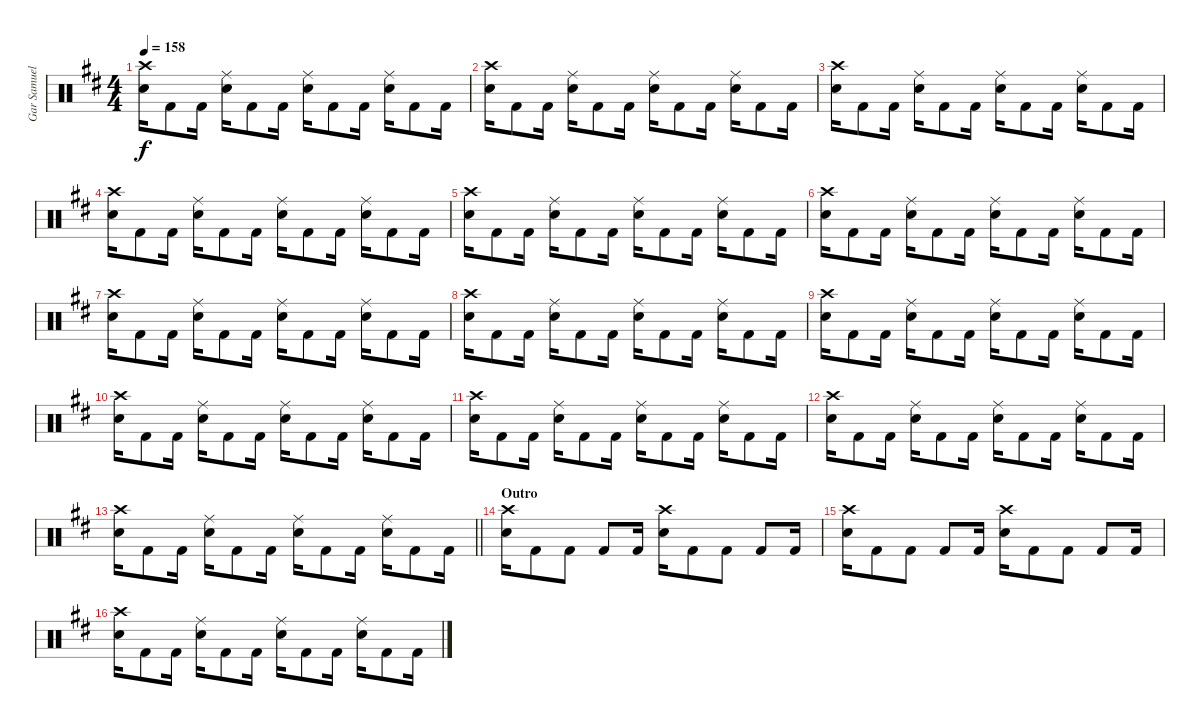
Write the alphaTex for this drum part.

\track ("Gar Samuelson" "Gar Samuel") {instrument percussion}
\staff {score}
\articulation defaults
\ts (4 4)
\tempo 158
\clef neutral
\ks d
("Crash high (hit)" "Snare (hit) 2").16{dy f} "Kick (hit) 2".8 "Kick (hit) 2".16 ("Ride (middle)" "Snare (hit) 2").16 "Kick (hit) 2".8 "Kick (hit) 2".16 ("Ride (middle)" "Snare (hit) 2").16 "Kick (hit) 2".8 "Kick (hit) 2".16 ("Ride (middle)" "Snare (hit) 2").16 "Kick (hit) 2".8 "Kick (hit) 2".16 |
("Crash high (hit)" "Snare (hit) 2").16 "Kick (hit) 2".8 "Kick (hit) 2".16 ("Ride (middle)" "Snare (hit) 2").16 "Kick (hit) 2".8 "Kick (hit) 2".16 ("Ride (middle)" "Snare (hit) 2").16 "Kick (hit) 2".8 "Kick (hit) 2".16 ("Ride (middle)" "Snare (hit) 2").16 "Kick (hit) 2".8 "Kick (hit) 2".16 |
("Crash high (hit)" "Snare (hit) 2").16 "Kick (hit) 2".8 "Kick (hit) 2".16 ("Ride (middle)" "Snare (hit) 2").16 "Kick (hit) 2".8 "Kick (hit) 2".16 ("Ride (middle)" "Snare (hit) 2").16 "Kick (hit) 2".8 "Kick (hit) 2".16 ("Ride (middle)" "Snare (hit) 2").16 "Kick (hit) 2".8 "Kick (hit) 2".16 |
("Crash high (hit)" "Snare (hit) 2").16 "Kick (hit) 2".8 "Kick (hit) 2".16 ("Ride (middle)" "Snare (hit) 2").16 "Kick (hit) 2".8 "Kick (hit) 2".16 ("Ride (middle)" "Snare (hit) 2").16 "Kick (hit) 2".8 "Kick (hit) 2".16 ("Ride (middle)" "Snare (hit) 2").16 "Kick (hit) 2".8 "Kick (hit) 2".16 |
("Crash high (hit)" "Snare (hit) 2").16 "Kick (hit) 2".8 "Kick (hit) 2".16 ("Ride (middle)" "Snare (hit) 2").16 "Kick (hit) 2".8 "Kick (hit) 2".16 ("Ride (middle)" "Snare (hit) 2").16 "Kick (hit) 2".8 "Kick (hit) 2".16 ("Ride (middle)" "Snare (hit) 2").16 "Kick (hit) 2".8 "Kick (hit) 2".16 |
("Crash high (hit)" "Snare (hit) 2").16 "Kick (hit) 2".8 "Kick (hit) 2".16 ("Ride (middle)" "Snare (hit) 2").16 "Kick (hit) 2".8 "Kick (hit) 2".16 ("Ride (middle)" "Snare (hit) 2").16 "Kick (hit) 2".8 "Kick (hit) 2".16 ("Ride (middle)" "Snare (hit) 2").16 "Kick (hit) 2".8 "Kick (hit) 2".16 |
("Crash high (hit)" "Snare (hit) 2").16 "Kick (hit) 2".8 "Kick (hit) 2".16 ("Ride (middle)" "Snare (hit) 2").16 "Kick (hit) 2".8 "Kick (hit) 2".16 ("Ride (middle)" "Snare (hit) 2").16 "Kick (hit) 2".8 "Kick (hit) 2".16 ("Ride (middle)" "Snare (hit) 2").16 "Kick (hit) 2".8 "Kick (hit) 2".16 |
("Crash high (hit)" "Snare (hit) 2").16 "Kick (hit) 2".8 "Kick (hit) 2".16 ("Ride (middle)" "Snare (hit) 2").16 "Kick (hit) 2".8 "Kick (hit) 2".16 ("Ride (middle)" "Snare (hit) 2").16 "Kick (hit) 2".8 "Kick (hit) 2".16 ("Ride (middle)" "Snare (hit) 2").16 "Kick (hit) 2".8 "Kick (hit) 2".16 |
("Crash high (hit)" "Snare (hit) 2").16 "Kick (hit) 2".8 "Kick (hit) 2".16 ("Ride (middle)" "Snare (hit) 2").16 "Kick (hit) 2".8 "Kick (hit) 2".16 ("Ride (middle)" "Snare (hit) 2").16 "Kick (hit) 2".8 "Kick (hit) 2".16 ("Ride (middle)" "Snare (hit) 2").16 "Kick (hit) 2".8 "Kick (hit) 2".16 |
("Crash high (hit)" "Snare (hit) 2").16 "Kick (hit) 2".8 "Kick (hit) 2".16 ("Ride (middle)" "Snare (hit) 2").16 "Kick (hit) 2".8 "Kick (hit) 2".16 ("Ride (middle)" "Snare (hit) 2").16 "Kick (hit) 2".8 "Kick (hit) 2".16 ("Ride (middle)" "Snare (hit) 2").16 "Kick (hit) 2".8 "Kick (hit) 2".16 |
("Crash high (hit)" "Snare (hit) 2").16 "Kick (hit) 2".8 "Kick (hit) 2".16 ("Ride (middle)" "Snare (hit) 2").16 "Kick (hit) 2".8 "Kick (hit) 2".16 ("Ride (middle)" "Snare (hit) 2").16 "Kick (hit) 2".8 "Kick (hit) 2".16 ("Ride (middle)" "Snare (hit) 2").16 "Kick (hit) 2".8 "Kick (hit) 2".16 |
("Crash high (hit)" "Snare (hit) 2").16 "Kick (hit) 2".8 "Kick (hit) 2".16 ("Ride (middle)" "Snare (hit) 2").16 "Kick (hit) 2".8 "Kick (hit) 2".16 ("Ride (middle)" "Snare (hit) 2").16 "Kick (hit) 2".8 "Kick (hit) 2".16 ("Ride (middle)" "Snare (hit) 2").16 "Kick (hit) 2".8 "Kick (hit) 2".16 |
\barLineRight lightlight
("Crash high (hit)" "Snare (hit) 2").16 "Kick (hit) 2".8 "Kick (hit) 2".16 ("Ride (middle)" "Snare (hit) 2").16 "Kick (hit) 2".8 "Kick (hit) 2".16 ("Ride (middle)" "Snare (hit) 2").16 "Kick (hit) 2".8 "Kick (hit) 2".16 ("Ride (middle)" "Snare (hit) 2").16 "Kick (hit) 2".8 "Kick (hit) 2".16 |
\section ("" "Outro")
("Crash high (hit)" "Snare (hit) 2").16 "Kick (hit) 2".8 "Kick (hit) 2".8 "Kick (hit) 2".8 "Kick (hit) 2".16 ("Crash high (hit)" "Snare (hit) 2").16 "Kick (hit) 2".8 "Kick (hit) 2".8 "Kick (hit) 2".8 "Kick (hit) 2".16 |
("Crash high (hit)" "Snare (hit) 2").16 "Kick (hit) 2".8 "Kick (hit) 2".8 "Kick (hit) 2".8 "Kick (hit) 2".16 ("Crash high (hit)" "Snare (hit) 2").16 "Kick (hit) 2".8 "Kick (hit) 2".8 "Kick (hit) 2".8 "Kick (hit) 2".16 |
("Crash high (hit)" "Snare (hit) 2").16 "Kick (hit) 2".8 "Kick (hit) 2".16 ("Ride (middle)" "Snare (hit) 2").16 "Kick (hit) 2".8 "Kick (hit) 2".16 ("Ride (middle)" "Snare (hit) 2").16 "Kick (hit) 2".8 "Kick (hit) 2".16 ("Ride (middle)" "Snare (hit) 2").16 "Kick (hit) 2".8 "Kick (hit) 2".16
